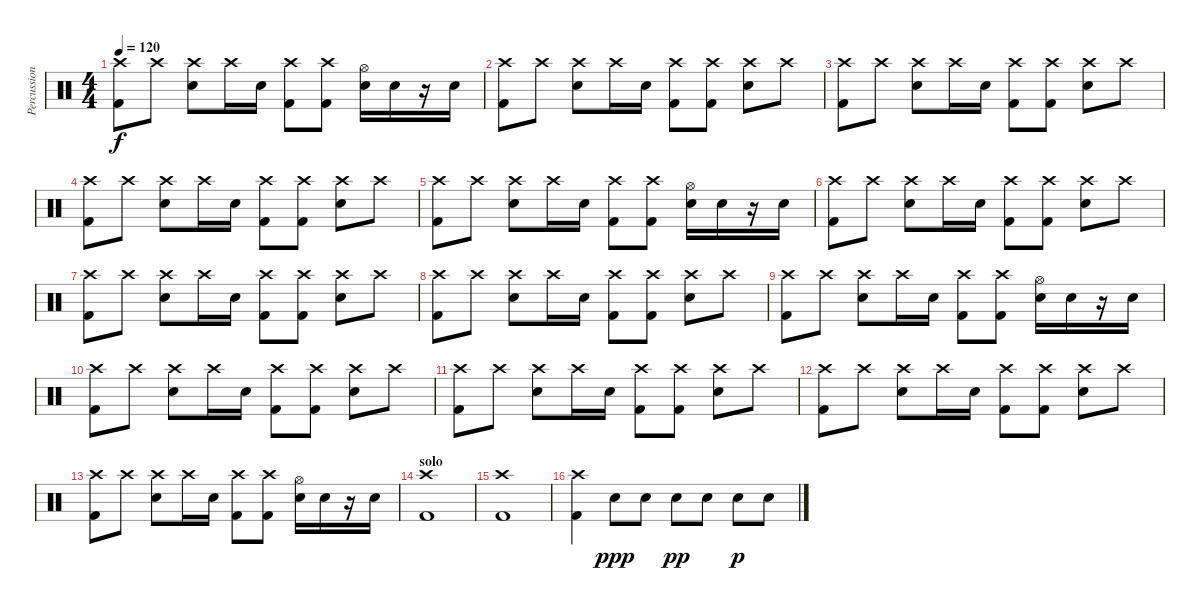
\track ("Percussions" "Percussion") {instrument percussion}
\staff {score}
\articulation defaults
\ts (4 4)
\tempo 120
\clef neutral
\ks c
("Crash high (hit)" "Kick (hit) 2").8{dy f} "Crash high (hit)".8 ("Crash high (hit)" "Snare (hit) 2").8 "Crash high (hit)".16 "Snare (hit) 2".16 ("Crash high (hit)" "Kick (hit) 2").8 ("Crash high (hit)" "Kick (hit) 2").8 ("Hi-Hat (open)" "Snare (hit) 2").16 "Snare (hit) 2".16 r.16 "Snare (hit) 2".16 |
("Crash high (hit)" "Kick (hit) 2").8 "Crash high (hit)".8 ("Crash high (hit)" "Snare (hit) 2").8 "Crash high (hit)".16 "Snare (hit) 2".16 ("Crash high (hit)" "Kick (hit) 2").8 ("Crash high (hit)" "Kick (hit) 2").8 ("Crash high (hit)" "Snare (hit) 2").8 "Crash high (hit)".8 |
("Crash high (hit)" "Kick (hit) 2").8 "Crash high (hit)".8 ("Crash high (hit)" "Snare (hit) 2").8 "Crash high (hit)".16 "Snare (hit) 2".16 ("Crash high (hit)" "Kick (hit) 2").8 ("Crash high (hit)" "Kick (hit) 2").8 ("Crash high (hit)" "Snare (hit) 2").8 "Crash high (hit)".8 |
("Crash high (hit)" "Kick (hit) 2").8 "Crash high (hit)".8 ("Crash high (hit)" "Snare (hit) 2").8 "Crash high (hit)".16 "Snare (hit) 2".16 ("Crash high (hit)" "Kick (hit) 2").8 ("Crash high (hit)" "Kick (hit) 2").8 ("Crash high (hit)" "Snare (hit) 2").8 "Crash high (hit)".8 |
("Crash high (hit)" "Kick (hit) 2").8 "Crash high (hit)".8 ("Crash high (hit)" "Snare (hit) 2").8 "Crash high (hit)".16 "Snare (hit) 2".16 ("Crash high (hit)" "Kick (hit) 2").8 ("Crash high (hit)" "Kick (hit) 2").8 ("Hi-Hat (open)" "Snare (hit) 2").16 "Snare (hit) 2".16 r.16 "Snare (hit) 2".16 |
("Crash high (hit)" "Kick (hit) 2").8 "Crash high (hit)".8 ("Crash high (hit)" "Snare (hit) 2").8 "Crash high (hit)".16 "Snare (hit) 2".16 ("Crash high (hit)" "Kick (hit) 2").8 ("Crash high (hit)" "Kick (hit) 2").8 ("Crash high (hit)" "Snare (hit) 2").8 "Crash high (hit)".8 |
("Crash high (hit)" "Kick (hit) 2").8 "Crash high (hit)".8 ("Crash high (hit)" "Snare (hit) 2").8 "Crash high (hit)".16 "Snare (hit) 2".16 ("Crash high (hit)" "Kick (hit) 2").8 ("Crash high (hit)" "Kick (hit) 2").8 ("Crash high (hit)" "Snare (hit) 2").8 "Crash high (hit)".8 |
("Crash high (hit)" "Kick (hit) 2").8 "Crash high (hit)".8 ("Crash high (hit)" "Snare (hit) 2").8 "Crash high (hit)".16 "Snare (hit) 2".16 ("Crash high (hit)" "Kick (hit) 2").8 ("Crash high (hit)" "Kick (hit) 2").8 ("Crash high (hit)" "Snare (hit) 2").8 "Crash high (hit)".8 |
("Crash high (hit)" "Kick (hit) 2").8 "Crash high (hit)".8 ("Crash high (hit)" "Snare (hit) 2").8 "Crash high (hit)".16 "Snare (hit) 2".16 ("Crash high (hit)" "Kick (hit) 2").8 ("Crash high (hit)" "Kick (hit) 2").8 ("Hi-Hat (open)" "Snare (hit) 2").16 "Snare (hit) 2".16 r.16 "Snare (hit) 2".16 |
("Crash high (hit)" "Kick (hit) 2").8 "Crash high (hit)".8 ("Crash high (hit)" "Snare (hit) 2").8 "Crash high (hit)".16 "Snare (hit) 2".16 ("Crash high (hit)" "Kick (hit) 2").8 ("Crash high (hit)" "Kick (hit) 2").8 ("Crash high (hit)" "Snare (hit) 2").8 "Crash high (hit)".8 |
("Crash high (hit)" "Kick (hit) 2").8 "Crash high (hit)".8 ("Crash high (hit)" "Snare (hit) 2").8 "Crash high (hit)".16 "Snare (hit) 2".16 ("Crash high (hit)" "Kick (hit) 2").8 ("Crash high (hit)" "Kick (hit) 2").8 ("Crash high (hit)" "Snare (hit) 2").8 "Crash high (hit)".8 |
("Crash high (hit)" "Kick (hit) 2").8 "Crash high (hit)".8 ("Crash high (hit)" "Snare (hit) 2").8 "Crash high (hit)".16 "Snare (hit) 2".16 ("Crash high (hit)" "Kick (hit) 2").8 ("Crash high (hit)" "Kick (hit) 2").8 ("Crash high (hit)" "Snare (hit) 2").8 "Crash high (hit)".8 |
("Crash high (hit)" "Kick (hit) 2").8 "Crash high (hit)".8 ("Crash high (hit)" "Snare (hit) 2").8 "Crash high (hit)".16 "Snare (hit) 2".16 ("Crash high (hit)" "Kick (hit) 2").8 ("Crash high (hit)" "Kick (hit) 2").8 ("Hi-Hat (open)" "Snare (hit) 2").16 "Snare (hit) 2".16 r.16 "Snare (hit) 2".16 |
\section ("" "solo")
("Crash high (hit)" "Kick (hit) 2").1 |
("Crash high (hit)" "Kick (hit) 2").1 |
("Crash high (hit)" "Kick (hit) 2").4 "Electric Snare (hit)".8{dy ppp} "Electric Snare (hit)".8 "Electric Snare (hit)".8{dy pp} "Electric Snare (hit)".8 "Electric Snare (hit)".8{dy p} "Electric Snare (hit)".8
